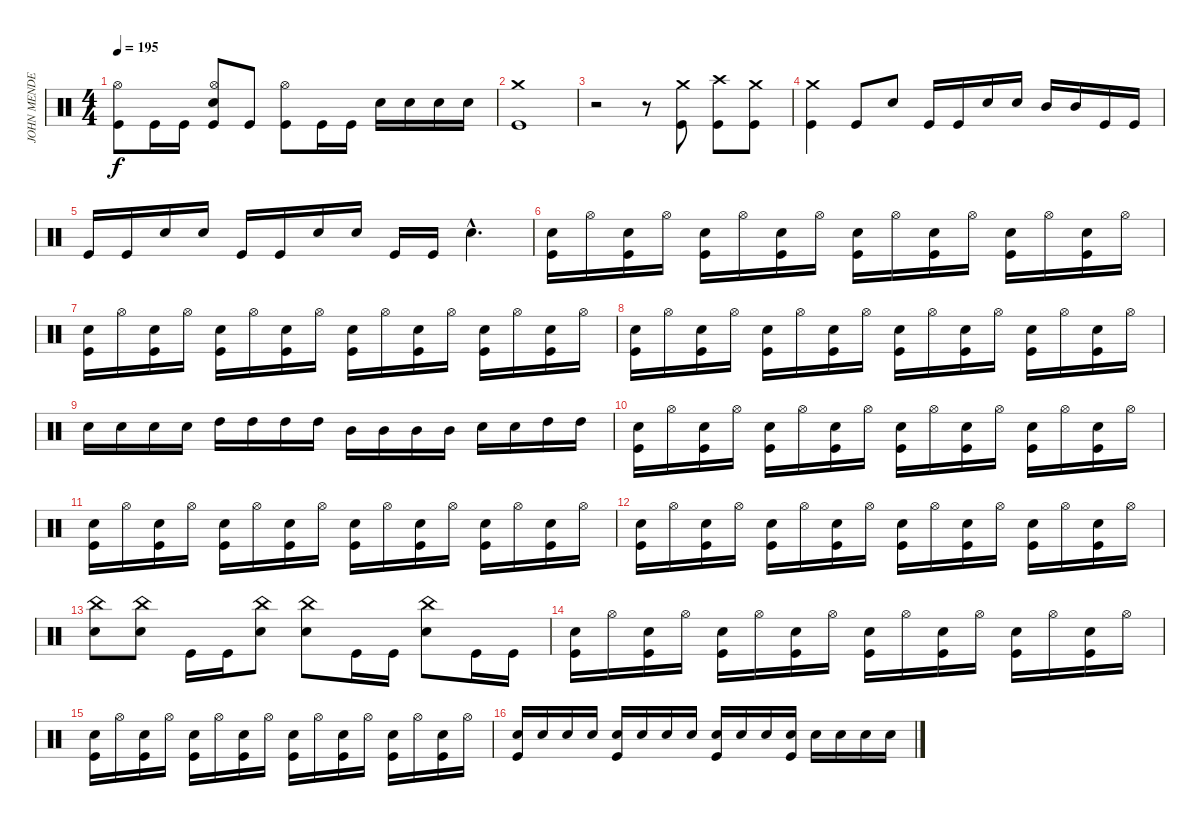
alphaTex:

\track ("JOHN MENDESSSSSSS" "JOHN MENDE") {instrument percussion}
\staff {score}
\articulation defaults
\ts (4 4)
\tempo 195
\clef neutral
\ks c
("Kick (hit)" "Hi-Hat (open)").8{dy f} "Kick (hit)".16 "Kick (hit)".16 ("Kick (hit)" "Snare (hit) 2" "Hi-Hat (open)").8 "Kick (hit)".8 ("Kick (hit)" "Hi-Hat (open)").8 "Kick (hit)".16 "Kick (hit)".16 "Snare (hit) 2".16 "Snare (hit) 2".16 "Snare (hit) 2".16 "Snare (hit) 2".16 |
("Kick (hit)" "Crash medium (hit)").1 |
r.2 r.8 ("Crash medium (hit)" "Kick (hit)").8 ("Crash high (hit)" "Kick (hit)").8 ("Crash medium (hit)" "Kick (hit)").8 |
("Crash medium (hit)" "Kick (hit)").4 "Kick (hit)".8 "Snare (hit) 2".8 "Kick (hit)".16 "Kick (hit)".16 "Snare (hit) 2".16 "Snare (hit) 2".16 "Mid Tom (hit)".16 "Mid Tom (hit)".16 "Kick (hit)".16 "Kick (hit)".16 |
"Kick (hit)".16 "Kick (hit)".16 "Snare (hit) 2".16 "Snare (hit) 2".16 "Kick (hit)".16 "Kick (hit)".16 "Snare (hit) 2".16 "Snare (hit) 2".16 "Kick (hit)".16 "Kick (hit)".16 "Snare (hit) 2"{hac}.4{d} |
("Kick (hit)" "Snare (hit) 2").16 "Hi-Hat (open)".16 ("Kick (hit)" "Snare (hit) 2").16 "Hi-Hat (open)".16 ("Kick (hit)" "Snare (hit) 2").16 "Hi-Hat (open)".16 ("Kick (hit)" "Snare (hit) 2").16 "Hi-Hat (open)".16 ("Kick (hit)" "Snare (hit) 2").16 "Hi-Hat (open)".16 ("Kick (hit)" "Snare (hit) 2").16 "Hi-Hat (open)".16 ("Kick (hit)" "Snare (hit) 2").16 "Hi-Hat (open)".16 ("Kick (hit)" "Snare (hit) 2").16 "Hi-Hat (open)".16 |
("Kick (hit)" "Snare (hit) 2").16 "Hi-Hat (open)".16 ("Kick (hit)" "Snare (hit) 2").16 "Hi-Hat (open)".16 ("Kick (hit)" "Snare (hit) 2").16 "Hi-Hat (open)".16 ("Kick (hit)" "Snare (hit) 2").16 "Hi-Hat (open)".16 ("Kick (hit)" "Snare (hit) 2").16 "Hi-Hat (open)".16 ("Kick (hit)" "Snare (hit) 2").16 "Hi-Hat (open)".16 ("Kick (hit)" "Snare (hit) 2").16 "Hi-Hat (open)".16 ("Kick (hit)" "Snare (hit) 2").16 "Hi-Hat (open)".16 |
("Kick (hit)" "Snare (hit) 2").16 "Hi-Hat (open)".16 ("Kick (hit)" "Snare (hit) 2").16 "Hi-Hat (open)".16 ("Kick (hit)" "Snare (hit) 2").16 "Hi-Hat (open)".16 ("Kick (hit)" "Snare (hit) 2").16 "Hi-Hat (open)".16 ("Kick (hit)" "Snare (hit) 2").16 "Hi-Hat (open)".16 ("Kick (hit)" "Snare (hit) 2").16 "Hi-Hat (open)".16 ("Kick (hit)" "Snare (hit) 2").16 "Hi-Hat (open)".16 ("Kick (hit)" "Snare (hit) 2").16 "Hi-Hat (open)".16 |
"Snare (hit) 2".16 "Snare (hit) 2".16 "Snare (hit) 2".16 "Snare (hit) 2".16 "High Tom (hit)".16 "High Tom (hit)".16 "High Tom (hit)".16 "High Tom (hit)".16 "Mid Tom (hit)".16 "Mid Tom (hit)".16 "Mid Tom (hit)".16 "Mid Tom (hit)".16 "Snare (hit) 2".16 "Snare (hit) 2".16 "High Tom (hit)".16 "High Tom (hit)".16 |
("Kick (hit)" "Snare (hit) 2").16 "Hi-Hat (open)".16 ("Kick (hit)" "Snare (hit) 2").16 "Hi-Hat (open)".16 ("Kick (hit)" "Snare (hit) 2").16 "Hi-Hat (open)".16 ("Kick (hit)" "Snare (hit) 2").16 "Hi-Hat (open)".16 ("Kick (hit)" "Snare (hit) 2").16 "Hi-Hat (open)".16 ("Kick (hit)" "Snare (hit) 2").16 "Hi-Hat (open)".16 ("Kick (hit)" "Snare (hit) 2").16 "Hi-Hat (open)".16 ("Kick (hit)" "Snare (hit) 2").16 "Hi-Hat (open)".16 |
("Kick (hit)" "Snare (hit) 2").16 "Hi-Hat (open)".16 ("Kick (hit)" "Snare (hit) 2").16 "Hi-Hat (open)".16 ("Kick (hit)" "Snare (hit) 2").16 "Hi-Hat (open)".16 ("Kick (hit)" "Snare (hit) 2").16 "Hi-Hat (open)".16 ("Kick (hit)" "Snare (hit) 2").16 "Hi-Hat (open)".16 ("Kick (hit)" "Snare (hit) 2").16 "Hi-Hat (open)".16 ("Kick (hit)" "Snare (hit) 2").16 "Hi-Hat (open)".16 ("Kick (hit)" "Snare (hit) 2").16 "Hi-Hat (open)".16 |
("Kick (hit)" "Snare (hit) 2").16 "Hi-Hat (open)".16 ("Kick (hit)" "Snare (hit) 2").16 "Hi-Hat (open)".16 ("Kick (hit)" "Snare (hit) 2").16 "Hi-Hat (open)".16 ("Kick (hit)" "Snare (hit) 2").16 "Hi-Hat (open)".16 ("Kick (hit)" "Snare (hit) 2").16 "Hi-Hat (open)".16 ("Kick (hit)" "Snare (hit) 2").16 "Hi-Hat (open)".16 ("Kick (hit)" "Snare (hit) 2").16 "Hi-Hat (open)".16 ("Kick (hit)" "Snare (hit) 2").16 "Hi-Hat (open)".16 |
("China (hit)" "Snare (hit) 2").8 ("China (hit)" "Snare (hit) 2").8 "Kick (hit)".16 "Kick (hit)".16 ("China (hit)" "Snare (hit) 2").8 ("China (hit)" "Snare (hit) 2").8 "Kick (hit)".16 "Kick (hit)".16 ("China (hit)" "Snare (hit) 2").8 "Kick (hit)".16 "Kick (hit)".16 |
("Kick (hit)" "Snare (hit) 2").16 "Hi-Hat (open)".16 ("Kick (hit)" "Snare (hit) 2").16 "Hi-Hat (open)".16 ("Kick (hit)" "Snare (hit) 2").16 "Hi-Hat (open)".16 ("Kick (hit)" "Snare (hit) 2").16 "Hi-Hat (open)".16 ("Kick (hit)" "Snare (hit) 2").16 "Hi-Hat (open)".16 ("Kick (hit)" "Snare (hit) 2").16 "Hi-Hat (open)".16 ("Kick (hit)" "Snare (hit) 2").16 "Hi-Hat (open)".16 ("Kick (hit)" "Snare (hit) 2").16 "Hi-Hat (open)".16 |
("Kick (hit)" "Snare (hit) 2").16 "Hi-Hat (open)".16 ("Kick (hit)" "Snare (hit) 2").16 "Hi-Hat (open)".16 ("Kick (hit)" "Snare (hit) 2").16 "Hi-Hat (open)".16 ("Kick (hit)" "Snare (hit) 2").16 "Hi-Hat (open)".16 ("Kick (hit)" "Snare (hit) 2").16 "Hi-Hat (open)".16 ("Kick (hit)" "Snare (hit) 2").16 "Hi-Hat (open)".16 ("Kick (hit)" "Snare (hit) 2").16 "Hi-Hat (open)".16 ("Kick (hit)" "Snare (hit) 2").16 "Hi-Hat (open)".16 |
("Snare (hit) 2" "Kick (hit)").16 "Snare (hit) 2".16 "Snare (hit) 2".16 "Snare (hit) 2".16 ("Snare (hit) 2" "Kick (hit)").16 "Snare (hit) 2".16 "Snare (hit) 2".16 "Snare (hit) 2".16 ("Snare (hit) 2" "Kick (hit)").16 "Snare (hit) 2".16 "Snare (hit) 2".16 ("Snare (hit) 2" "Kick (hit)").16 "Snare (hit) 2".16 "Snare (hit) 2".16 "Snare (hit) 2".16 "Snare (hit) 2".16
